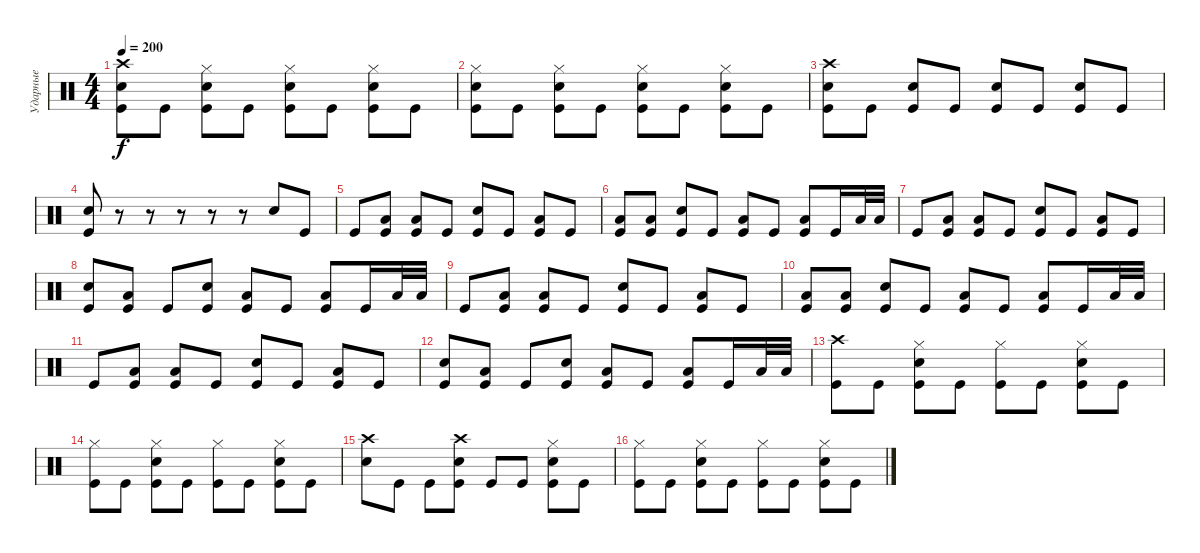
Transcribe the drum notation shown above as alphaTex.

\track ("Ударные" "Ударные") {instrument percussion}
\staff {score}
\articulation defaults
\ts (4 4)
\tempo 200
\clef neutral
\ks c
("Crash high (hit)" "Electric Snare (hit)" "Kick (hit)").8{dy f} "Kick (hit)".8 ("Hi-Hat (closed)" "Electric Snare (hit)" "Kick (hit)").8 "Kick (hit)".8 ("Hi-Hat (closed)" "Electric Snare (hit)" "Kick (hit)").8 "Kick (hit)".8 ("Hi-Hat (closed)" "Electric Snare (hit)" "Kick (hit)").8 "Kick (hit)".8 |
("Hi-Hat (closed)" "Electric Snare (hit)" "Kick (hit)").8 "Kick (hit)".8 ("Hi-Hat (closed)" "Electric Snare (hit)" "Kick (hit)").8 "Kick (hit)".8 ("Hi-Hat (closed)" "Electric Snare (hit)" "Kick (hit)").8 "Kick (hit)".8 ("Hi-Hat (closed)" "Electric Snare (hit)" "Kick (hit)").8 "Kick (hit)".8 |
("Crash high (hit)" "Electric Snare (hit)" "Kick (hit)").8 "Kick (hit)".8 ("Electric Snare (hit)" "Kick (hit)").8 "Kick (hit)".8 ("Electric Snare (hit)" "Kick (hit)").8 "Kick (hit)".8 ("Electric Snare (hit)" "Kick (hit)").8 "Kick (hit)".8 |
("Electric Snare (hit)" "Kick (hit)").8 r.8 r.8 r.8 r.8 r.8 "Electric Snare (hit)".8 "Kick (hit)".8 |
"Kick (hit)".8 ("Low Tom (hit)" "Kick (hit)").8 ("Low Tom (hit)" "Kick (hit)").8 "Kick (hit)".8 ("Electric Snare (hit)" "Kick (hit)").8 "Kick (hit)".8 ("Low Tom (hit)" "Kick (hit)").8 "Kick (hit)".8 |
("Low Tom (hit)" "Kick (hit)").8 ("Low Tom (hit)" "Kick (hit)").8 ("Electric Snare (hit)" "Kick (hit)").8 "Kick (hit)".8 ("Low Tom (hit)" "Kick (hit)").8 "Kick (hit)".8 ("Low Tom (hit)" "Kick (hit)").8 "Kick (hit)".16 "Low Tom (hit)".32 "Low Tom (hit)".32 |
"Kick (hit)".8 ("Low Tom (hit)" "Kick (hit)").8 ("Low Tom (hit)" "Kick (hit)").8 "Kick (hit)".8 ("Electric Snare (hit)" "Kick (hit)").8 "Kick (hit)".8 ("Low Tom (hit)" "Kick (hit)").8 "Kick (hit)".8 |
("Electric Snare (hit)" "Kick (hit)").8 ("Low Tom (hit)" "Kick (hit)").8 "Kick (hit)".8 ("Electric Snare (hit)" "Kick (hit)").8 ("Low Tom (hit)" "Kick (hit)").8 "Kick (hit)".8 ("Low Tom (hit)" "Kick (hit)").8 "Kick (hit)".16 "Low Tom (hit)".32 "Low Tom (hit)".32 |
"Kick (hit)".8 ("Low Tom (hit)" "Kick (hit)").8 ("Low Tom (hit)" "Kick (hit)").8 "Kick (hit)".8 ("Electric Snare (hit)" "Kick (hit)").8 "Kick (hit)".8 ("Low Tom (hit)" "Kick (hit)").8 "Kick (hit)".8 |
("Low Tom (hit)" "Kick (hit)").8 ("Low Tom (hit)" "Kick (hit)").8 ("Electric Snare (hit)" "Kick (hit)").8 "Kick (hit)".8 ("Low Tom (hit)" "Kick (hit)").8 "Kick (hit)".8 ("Low Tom (hit)" "Kick (hit)").8 "Kick (hit)".16 "Low Tom (hit)".32 "Low Tom (hit)".32 |
"Kick (hit)".8 ("Low Tom (hit)" "Kick (hit)").8 ("Low Tom (hit)" "Kick (hit)").8 "Kick (hit)".8 ("Electric Snare (hit)" "Kick (hit)").8 "Kick (hit)".8 ("Low Tom (hit)" "Kick (hit)").8 "Kick (hit)".8 |
("Electric Snare (hit)" "Kick (hit)").8 ("Low Tom (hit)" "Kick (hit)").8 "Kick (hit)".8 ("Electric Snare (hit)" "Kick (hit)").8 ("Low Tom (hit)" "Kick (hit)").8 "Kick (hit)".8 ("Low Tom (hit)" "Kick (hit)").8 "Kick (hit)".16 "Low Tom (hit)".32 "Low Tom (hit)".32 |
("Crash high (hit)" "Kick (hit)").8 "Kick (hit)".8 ("Hi-Hat (closed)" "Electric Snare (hit)" "Kick (hit)").8 "Kick (hit)".8 ("Hi-Hat (closed)" "Kick (hit)").8 "Kick (hit)".8 ("Hi-Hat (closed)" "Electric Snare (hit)" "Kick (hit)").8 "Kick (hit)".8 |
("Hi-Hat (closed)" "Kick (hit)").8 "Kick (hit)".8 ("Hi-Hat (closed)" "Electric Snare (hit)" "Kick (hit)").8 "Kick (hit)".8 ("Hi-Hat (closed)" "Kick (hit)").8 "Kick (hit)".8 ("Hi-Hat (closed)" "Electric Snare (hit)" "Kick (hit)").8 "Kick (hit)".8 |
("Crash high (hit)" "Electric Snare (hit)").8 "Kick (hit)".8 "Kick (hit)".8 ("Crash high (hit)" "Electric Snare (hit)" "Kick (hit)").8 "Kick (hit)".8 "Kick (hit)".8 ("Hi-Hat (closed)" "Electric Snare (hit)" "Kick (hit)").8 "Kick (hit)".8 |
("Hi-Hat (closed)" "Kick (hit)").8 "Kick (hit)".8 ("Hi-Hat (closed)" "Electric Snare (hit)" "Kick (hit)").8 "Kick (hit)".8 ("Hi-Hat (closed)" "Kick (hit)").8 "Kick (hit)".8 ("Hi-Hat (closed)" "Electric Snare (hit)" "Kick (hit)").8 "Kick (hit)".8
